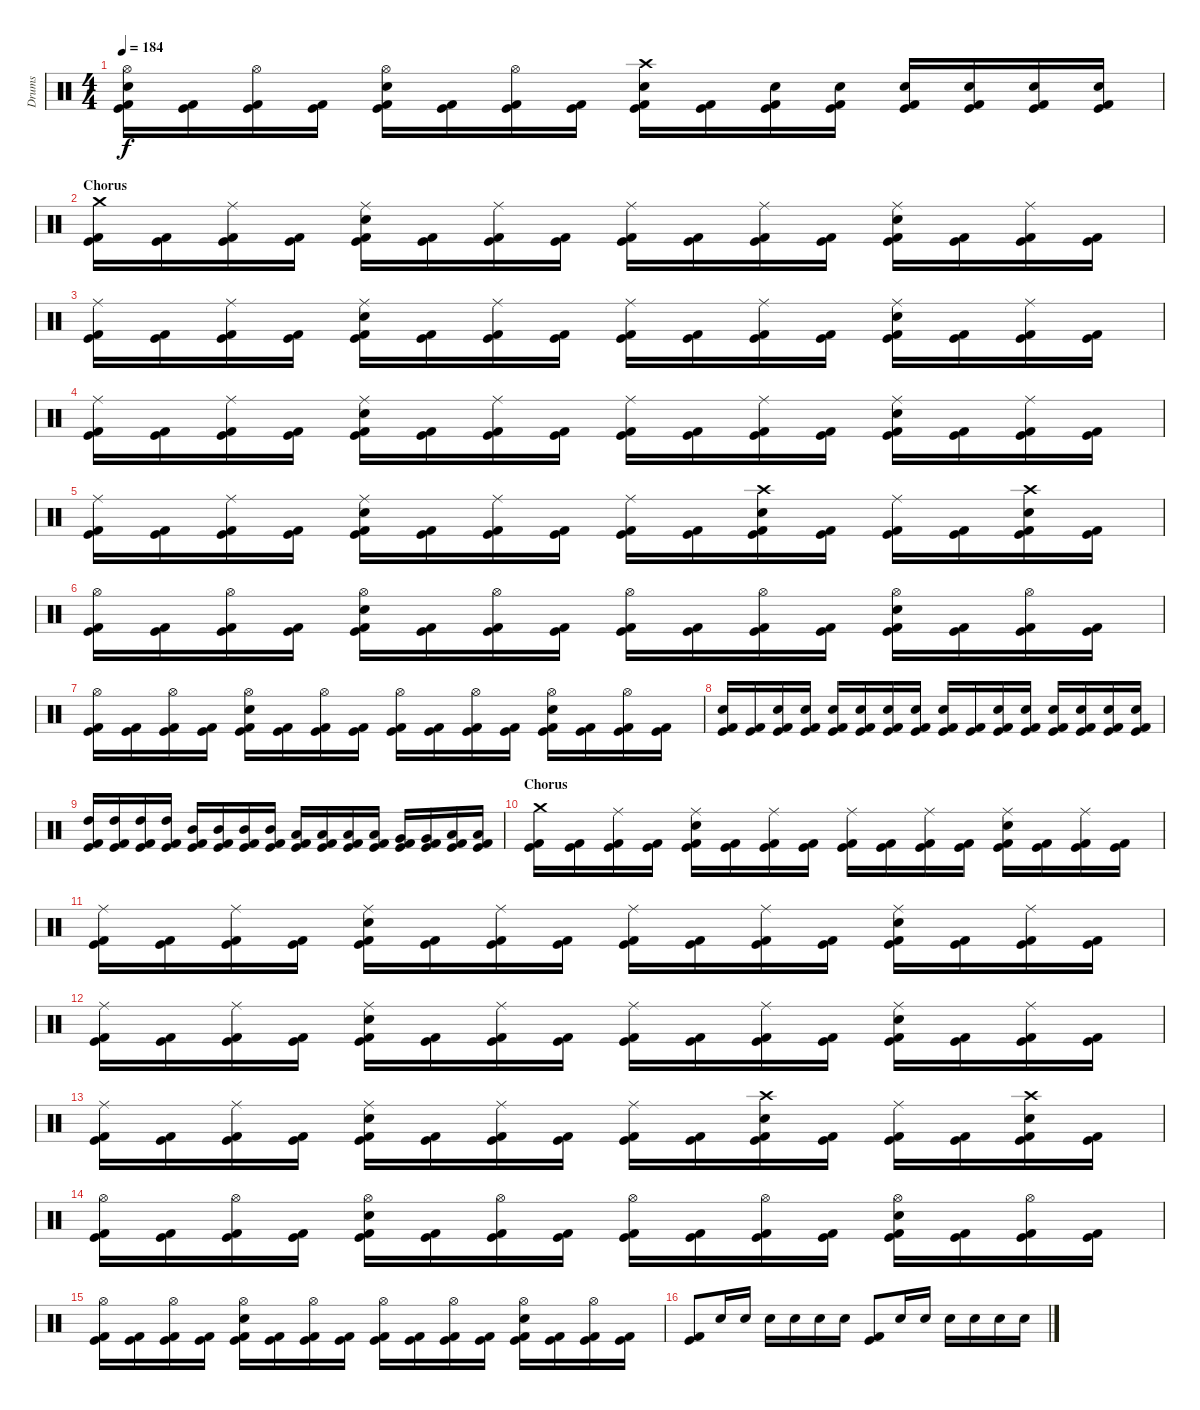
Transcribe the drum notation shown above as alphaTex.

\track ("Drums" "Drums") {instrument percussion}
\staff {score}
\articulation defaults
\ts (4 4)
\tempo 184
\clef neutral
\ks c
("Hi-Hat (open)" "Electric Snare (hit)" "Kick (hit)" "Kick (hit) 2").16{dy f} ("Kick (hit)" "Kick (hit) 2").16 ("Hi-Hat (open)" "Kick (hit)" "Kick (hit) 2").16 ("Kick (hit)" "Kick (hit) 2").16 ("Hi-Hat (open)" "Electric Snare (hit)" "Kick (hit)" "Kick (hit) 2").16 ("Kick (hit)" "Kick (hit) 2").16 ("Hi-Hat (open)" "Kick (hit)" "Kick (hit) 2").16 ("Kick (hit)" "Kick (hit) 2").16 ("Crash high (hit)" "Electric Snare (hit)" "Kick (hit)" "Kick (hit) 2").16 ("Kick (hit)" "Kick (hit) 2").16 ("Electric Snare (hit)" "Kick (hit)" "Kick (hit) 2").16 ("Electric Snare (hit)" "Kick (hit)" "Kick (hit) 2").16 ("Electric Snare (hit)" "Kick (hit)" "Kick (hit) 2").16 ("Electric Snare (hit)" "Kick (hit)" "Kick (hit) 2").16 ("Electric Snare (hit)" "Kick (hit)" "Kick (hit) 2").16 ("Electric Snare (hit)" "Kick (hit)" "Kick (hit) 2").16 |
\section ("" "Chorus")
("Crash medium (hit)" "Kick (hit)" "Kick (hit) 2").16 ("Kick (hit)" "Kick (hit) 2").16 ("Ride (middle)" "Kick (hit)" "Kick (hit) 2").16 ("Kick (hit)" "Kick (hit) 2").16 ("Ride (middle)" "Electric Snare (hit)" "Kick (hit)" "Kick (hit) 2").16 ("Kick (hit)" "Kick (hit) 2").16 ("Ride (middle)" "Kick (hit)" "Kick (hit) 2").16 ("Kick (hit)" "Kick (hit) 2").16 ("Ride (middle)" "Kick (hit)" "Kick (hit) 2").16 ("Kick (hit)" "Kick (hit) 2").16 ("Ride (middle)" "Kick (hit)" "Kick (hit) 2").16 ("Kick (hit)" "Kick (hit) 2").16 ("Ride (middle)" "Electric Snare (hit)" "Kick (hit)" "Kick (hit) 2").16 ("Kick (hit)" "Kick (hit) 2").16 ("Ride (middle)" "Kick (hit)" "Kick (hit) 2").16 ("Kick (hit)" "Kick (hit) 2").16 |
("Ride (middle)" "Kick (hit)" "Kick (hit) 2").16 ("Kick (hit)" "Kick (hit) 2").16 ("Ride (middle)" "Kick (hit)" "Kick (hit) 2").16 ("Kick (hit)" "Kick (hit) 2").16 ("Ride (middle)" "Electric Snare (hit)" "Kick (hit)" "Kick (hit) 2").16 ("Kick (hit)" "Kick (hit) 2").16 ("Ride (middle)" "Kick (hit)" "Kick (hit) 2").16 ("Kick (hit)" "Kick (hit) 2").16 ("Ride (middle)" "Kick (hit)" "Kick (hit) 2").16 ("Kick (hit)" "Kick (hit) 2").16 ("Ride (middle)" "Kick (hit)" "Kick (hit) 2").16 ("Kick (hit)" "Kick (hit) 2").16 ("Ride (middle)" "Electric Snare (hit)" "Kick (hit)" "Kick (hit) 2").16 ("Kick (hit)" "Kick (hit) 2").16 ("Ride (middle)" "Kick (hit)" "Kick (hit) 2").16 ("Kick (hit)" "Kick (hit) 2").16 |
("Ride (middle)" "Kick (hit)" "Kick (hit) 2").16 ("Kick (hit)" "Kick (hit) 2").16 ("Ride (middle)" "Kick (hit)" "Kick (hit) 2").16 ("Kick (hit)" "Kick (hit) 2").16 ("Ride (middle)" "Electric Snare (hit)" "Kick (hit)" "Kick (hit) 2").16 ("Kick (hit)" "Kick (hit) 2").16 ("Ride (middle)" "Kick (hit)" "Kick (hit) 2").16 ("Kick (hit)" "Kick (hit) 2").16 ("Ride (middle)" "Kick (hit)" "Kick (hit) 2").16 ("Kick (hit)" "Kick (hit) 2").16 ("Ride (middle)" "Kick (hit)" "Kick (hit) 2").16 ("Kick (hit)" "Kick (hit) 2").16 ("Ride (middle)" "Electric Snare (hit)" "Kick (hit)" "Kick (hit) 2").16 ("Kick (hit)" "Kick (hit) 2").16 ("Ride (middle)" "Kick (hit)" "Kick (hit) 2").16 ("Kick (hit)" "Kick (hit) 2").16 |
("Ride (middle)" "Kick (hit)" "Kick (hit) 2").16 ("Kick (hit)" "Kick (hit) 2").16 ("Ride (middle)" "Kick (hit)" "Kick (hit) 2").16 ("Kick (hit)" "Kick (hit) 2").16 ("Ride (middle)" "Electric Snare (hit)" "Kick (hit)" "Kick (hit) 2").16 ("Kick (hit)" "Kick (hit) 2").16 ("Ride (middle)" "Kick (hit)" "Kick (hit) 2").16 ("Kick (hit)" "Kick (hit) 2").16 ("Ride (middle)" "Kick (hit)" "Kick (hit) 2").16 ("Kick (hit)" "Kick (hit) 2").16 ("Crash high (hit)" "Electric Snare (hit)" "Kick (hit)" "Kick (hit) 2").16 ("Kick (hit)" "Kick (hit) 2").16 ("Ride (middle)" "Kick (hit)" "Kick (hit) 2").16 ("Kick (hit)" "Kick (hit) 2").16 ("Crash high (hit)" "Electric Snare (hit)" "Kick (hit)" "Kick (hit) 2").16 ("Kick (hit)" "Kick (hit) 2").16 |
("Hi-Hat (open)" "Kick (hit)" "Kick (hit) 2").16 ("Kick (hit)" "Kick (hit) 2").16 ("Hi-Hat (open)" "Kick (hit)" "Kick (hit) 2").16 ("Kick (hit)" "Kick (hit) 2").16 ("Hi-Hat (open)" "Electric Snare (hit)" "Kick (hit)" "Kick (hit) 2").16 ("Kick (hit)" "Kick (hit) 2").16 ("Hi-Hat (open)" "Kick (hit)" "Kick (hit) 2").16 ("Kick (hit)" "Kick (hit) 2").16 ("Hi-Hat (open)" "Kick (hit)" "Kick (hit) 2").16 ("Kick (hit)" "Kick (hit) 2").16 ("Hi-Hat (open)" "Kick (hit)" "Kick (hit) 2").16 ("Kick (hit)" "Kick (hit) 2").16 ("Hi-Hat (open)" "Electric Snare (hit)" "Kick (hit)" "Kick (hit) 2").16 ("Kick (hit)" "Kick (hit) 2").16 ("Hi-Hat (open)" "Kick (hit)" "Kick (hit) 2").16 ("Kick (hit)" "Kick (hit) 2").16 |
("Hi-Hat (open)" "Kick (hit)" "Kick (hit) 2").16 ("Kick (hit)" "Kick (hit) 2").16 ("Hi-Hat (open)" "Kick (hit)" "Kick (hit) 2").16 ("Kick (hit)" "Kick (hit) 2").16 ("Hi-Hat (open)" "Electric Snare (hit)" "Kick (hit)" "Kick (hit) 2").16 ("Kick (hit)" "Kick (hit) 2").16 ("Hi-Hat (open)" "Kick (hit)" "Kick (hit) 2").16 ("Kick (hit)" "Kick (hit) 2").16 ("Hi-Hat (open)" "Kick (hit)" "Kick (hit) 2").16 ("Kick (hit)" "Kick (hit) 2").16 ("Hi-Hat (open)" "Kick (hit)" "Kick (hit) 2").16 ("Kick (hit)" "Kick (hit) 2").16 ("Hi-Hat (open)" "Electric Snare (hit)" "Kick (hit)" "Kick (hit) 2").16 ("Kick (hit)" "Kick (hit) 2").16 ("Hi-Hat (open)" "Kick (hit)" "Kick (hit) 2").16 ("Kick (hit)" "Kick (hit) 2").16 |
("Electric Snare (hit)" "Kick (hit)" "Kick (hit) 2").16 ("Kick (hit)" "Kick (hit) 2").16 ("Electric Snare (hit)" "Kick (hit)" "Kick (hit) 2").16 ("Electric Snare (hit)" "Kick (hit)" "Kick (hit) 2").16 ("Electric Snare (hit)" "Kick (hit)" "Kick (hit) 2").16 ("Electric Snare (hit)" "Kick (hit)" "Kick (hit) 2").16 ("Electric Snare (hit)" "Kick (hit)" "Kick (hit) 2").16 ("Electric Snare (hit)" "Kick (hit)" "Kick (hit) 2").16 ("Electric Snare (hit)" "Kick (hit)" "Kick (hit) 2").16 ("Kick (hit)" "Kick (hit) 2").16 ("Electric Snare (hit)" "Kick (hit)" "Kick (hit) 2").16 ("Electric Snare (hit)" "Kick (hit)" "Kick (hit) 2").16 ("Electric Snare (hit)" "Kick (hit)" "Kick (hit) 2").16 ("Electric Snare (hit)" "Kick (hit)" "Kick (hit) 2").16 ("Electric Snare (hit)" "Kick (hit)" "Kick (hit) 2").16 ("Electric Snare (hit)" "Kick (hit)" "Kick (hit) 2").16 |
("High Tom (hit)" "Kick (hit)" "Kick (hit) 2").16 ("High Tom (hit)" "Kick (hit)" "Kick (hit) 2").16 ("High Tom (hit)" "Kick (hit)" "Kick (hit) 2").16 ("High Tom (hit)" "Kick (hit)" "Kick (hit) 2").16 ("Mid Tom (hit)" "Kick (hit)" "Kick (hit) 2").16 ("Mid Tom (hit)" "Kick (hit)" "Kick (hit) 2").16 ("Mid Tom (hit)" "Kick (hit)" "Kick (hit) 2").16 ("Mid Tom (hit)" "Kick (hit)" "Kick (hit) 2").16 ("Low Tom (hit)" "Kick (hit)" "Kick (hit) 2").16 ("Low Tom (hit)" "Kick (hit)" "Kick (hit) 2").16 ("Low Tom (hit)" "Kick (hit)" "Kick (hit) 2").16 ("Low Tom (hit)" "Kick (hit)" "Kick (hit) 2").16 ("Very Low Tom (hit)" "Kick (hit)" "Kick (hit) 2").16 ("Very Low Tom (hit)" "Kick (hit)" "Kick (hit) 2").16 ("Low Floor Tom (hit)" "Kick (hit)" "Kick (hit) 2").16 ("Low Floor Tom (hit)" "Kick (hit)" "Kick (hit) 2").16 |
\section ("" "Chorus")
("Crash medium (hit)" "Kick (hit)" "Kick (hit) 2").16 ("Kick (hit)" "Kick (hit) 2").16 ("Ride (middle)" "Kick (hit)" "Kick (hit) 2").16 ("Kick (hit)" "Kick (hit) 2").16 ("Ride (middle)" "Electric Snare (hit)" "Kick (hit)" "Kick (hit) 2").16 ("Kick (hit)" "Kick (hit) 2").16 ("Ride (middle)" "Kick (hit)" "Kick (hit) 2").16 ("Kick (hit)" "Kick (hit) 2").16 ("Ride (middle)" "Kick (hit)" "Kick (hit) 2").16 ("Kick (hit)" "Kick (hit) 2").16 ("Ride (middle)" "Kick (hit)" "Kick (hit) 2").16 ("Kick (hit)" "Kick (hit) 2").16 ("Ride (middle)" "Electric Snare (hit)" "Kick (hit)" "Kick (hit) 2").16 ("Kick (hit)" "Kick (hit) 2").16 ("Ride (middle)" "Kick (hit)" "Kick (hit) 2").16 ("Kick (hit)" "Kick (hit) 2").16 |
("Ride (middle)" "Kick (hit)" "Kick (hit) 2").16 ("Kick (hit)" "Kick (hit) 2").16 ("Ride (middle)" "Kick (hit)" "Kick (hit) 2").16 ("Kick (hit)" "Kick (hit) 2").16 ("Ride (middle)" "Electric Snare (hit)" "Kick (hit)" "Kick (hit) 2").16 ("Kick (hit)" "Kick (hit) 2").16 ("Ride (middle)" "Kick (hit)" "Kick (hit) 2").16 ("Kick (hit)" "Kick (hit) 2").16 ("Ride (middle)" "Kick (hit)" "Kick (hit) 2").16 ("Kick (hit)" "Kick (hit) 2").16 ("Ride (middle)" "Kick (hit)" "Kick (hit) 2").16 ("Kick (hit)" "Kick (hit) 2").16 ("Ride (middle)" "Electric Snare (hit)" "Kick (hit)" "Kick (hit) 2").16 ("Kick (hit)" "Kick (hit) 2").16 ("Ride (middle)" "Kick (hit)" "Kick (hit) 2").16 ("Kick (hit)" "Kick (hit) 2").16 |
("Ride (middle)" "Kick (hit)" "Kick (hit) 2").16 ("Kick (hit)" "Kick (hit) 2").16 ("Ride (middle)" "Kick (hit)" "Kick (hit) 2").16 ("Kick (hit)" "Kick (hit) 2").16 ("Ride (middle)" "Electric Snare (hit)" "Kick (hit)" "Kick (hit) 2").16 ("Kick (hit)" "Kick (hit) 2").16 ("Ride (middle)" "Kick (hit)" "Kick (hit) 2").16 ("Kick (hit)" "Kick (hit) 2").16 ("Ride (middle)" "Kick (hit)" "Kick (hit) 2").16 ("Kick (hit)" "Kick (hit) 2").16 ("Ride (middle)" "Kick (hit)" "Kick (hit) 2").16 ("Kick (hit)" "Kick (hit) 2").16 ("Ride (middle)" "Electric Snare (hit)" "Kick (hit)" "Kick (hit) 2").16 ("Kick (hit)" "Kick (hit) 2").16 ("Ride (middle)" "Kick (hit)" "Kick (hit) 2").16 ("Kick (hit)" "Kick (hit) 2").16 |
("Ride (middle)" "Kick (hit)" "Kick (hit) 2").16 ("Kick (hit)" "Kick (hit) 2").16 ("Ride (middle)" "Kick (hit)" "Kick (hit) 2").16 ("Kick (hit)" "Kick (hit) 2").16 ("Ride (middle)" "Electric Snare (hit)" "Kick (hit)" "Kick (hit) 2").16 ("Kick (hit)" "Kick (hit) 2").16 ("Ride (middle)" "Kick (hit)" "Kick (hit) 2").16 ("Kick (hit)" "Kick (hit) 2").16 ("Ride (middle)" "Kick (hit)" "Kick (hit) 2").16 ("Kick (hit)" "Kick (hit) 2").16 ("Crash high (hit)" "Electric Snare (hit)" "Kick (hit)" "Kick (hit) 2").16 ("Kick (hit)" "Kick (hit) 2").16 ("Ride (middle)" "Kick (hit)" "Kick (hit) 2").16 ("Kick (hit)" "Kick (hit) 2").16 ("Crash high (hit)" "Electric Snare (hit)" "Kick (hit)" "Kick (hit) 2").16 ("Kick (hit)" "Kick (hit) 2").16 |
("Hi-Hat (open)" "Kick (hit)" "Kick (hit) 2").16 ("Kick (hit)" "Kick (hit) 2").16 ("Hi-Hat (open)" "Kick (hit)" "Kick (hit) 2").16 ("Kick (hit)" "Kick (hit) 2").16 ("Hi-Hat (open)" "Electric Snare (hit)" "Kick (hit)" "Kick (hit) 2").16 ("Kick (hit)" "Kick (hit) 2").16 ("Hi-Hat (open)" "Kick (hit)" "Kick (hit) 2").16 ("Kick (hit)" "Kick (hit) 2").16 ("Hi-Hat (open)" "Kick (hit)" "Kick (hit) 2").16 ("Kick (hit)" "Kick (hit) 2").16 ("Hi-Hat (open)" "Kick (hit)" "Kick (hit) 2").16 ("Kick (hit)" "Kick (hit) 2").16 ("Hi-Hat (open)" "Electric Snare (hit)" "Kick (hit)" "Kick (hit) 2").16 ("Kick (hit)" "Kick (hit) 2").16 ("Hi-Hat (open)" "Kick (hit)" "Kick (hit) 2").16 ("Kick (hit)" "Kick (hit) 2").16 |
("Hi-Hat (open)" "Kick (hit)" "Kick (hit) 2").16 ("Kick (hit)" "Kick (hit) 2").16 ("Hi-Hat (open)" "Kick (hit)" "Kick (hit) 2").16 ("Kick (hit)" "Kick (hit) 2").16 ("Hi-Hat (open)" "Electric Snare (hit)" "Kick (hit)" "Kick (hit) 2").16 ("Kick (hit)" "Kick (hit) 2").16 ("Hi-Hat (open)" "Kick (hit)" "Kick (hit) 2").16 ("Kick (hit)" "Kick (hit) 2").16 ("Hi-Hat (open)" "Kick (hit)" "Kick (hit) 2").16 ("Kick (hit)" "Kick (hit) 2").16 ("Hi-Hat (open)" "Kick (hit)" "Kick (hit) 2").16 ("Kick (hit)" "Kick (hit) 2").16 ("Hi-Hat (open)" "Electric Snare (hit)" "Kick (hit)" "Kick (hit) 2").16 ("Kick (hit)" "Kick (hit) 2").16 ("Hi-Hat (open)" "Kick (hit)" "Kick (hit) 2").16 ("Kick (hit)" "Kick (hit) 2").16 |
("Kick (hit)" "Kick (hit) 2").8 "Electric Snare (hit)".16 "Electric Snare (hit)".16 "Electric Snare (hit)".16 "Electric Snare (hit)".16 "Electric Snare (hit)".16 "Electric Snare (hit)".16 ("Kick (hit)" "Kick (hit) 2").8 "Electric Snare (hit)".16 "Electric Snare (hit)".16 "Electric Snare (hit)".16 "Electric Snare (hit)".16 "Electric Snare (hit)".16 "Electric Snare (hit)".16
